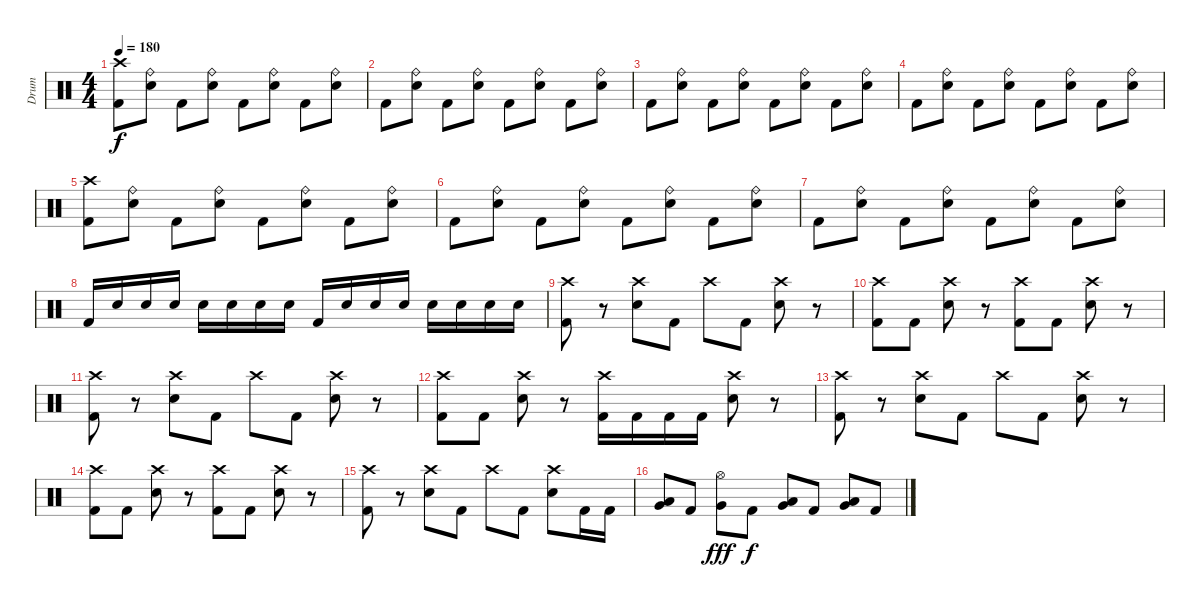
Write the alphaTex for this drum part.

\track ("Drum" "Drum") {instrument percussion}
\staff {score}
\articulation defaults
\ts (4 4)
\tempo 180
\clef neutral
\ks c
("Crash high (hit)" "Kick (hit) 2").8{dy f} ("Ride (bell)" "Snare (hit) 2").8 "Kick (hit) 2".8 ("Ride (bell)" "Snare (hit) 2").8 "Kick (hit) 2".8 ("Ride (bell)" "Snare (hit) 2").8 "Kick (hit) 2".8 ("Ride (bell)" "Snare (hit) 2").8 |
"Kick (hit) 2".8 ("Ride (bell)" "Snare (hit) 2").8 "Kick (hit) 2".8 ("Ride (bell)" "Snare (hit) 2").8 "Kick (hit) 2".8 ("Ride (bell)" "Snare (hit) 2").8 "Kick (hit) 2".8 ("Ride (bell)" "Snare (hit) 2").8 |
"Kick (hit) 2".8 ("Ride (bell)" "Snare (hit) 2").8 "Kick (hit) 2".8 ("Ride (bell)" "Snare (hit) 2").8 "Kick (hit) 2".8 ("Ride (bell)" "Snare (hit) 2").8 "Kick (hit) 2".8 ("Ride (bell)" "Snare (hit) 2").8 |
"Kick (hit) 2".8 ("Ride (bell)" "Snare (hit) 2").8 "Kick (hit) 2".8 ("Ride (bell)" "Snare (hit) 2").8 "Kick (hit) 2".8 ("Ride (bell)" "Snare (hit) 2").8 "Kick (hit) 2".8 ("Ride (bell)" "Snare (hit) 2").8 |
("Crash high (hit)" "Kick (hit) 2").8 ("Ride (bell)" "Snare (hit) 2").8 "Kick (hit) 2".8 ("Ride (bell)" "Snare (hit) 2").8 "Kick (hit) 2".8 ("Ride (bell)" "Snare (hit) 2").8 "Kick (hit) 2".8 ("Ride (bell)" "Snare (hit) 2").8 |
"Kick (hit) 2".8 ("Ride (bell)" "Snare (hit) 2").8 "Kick (hit) 2".8 ("Ride (bell)" "Snare (hit) 2").8 "Kick (hit) 2".8 ("Ride (bell)" "Snare (hit) 2").8 "Kick (hit) 2".8 ("Ride (bell)" "Snare (hit) 2").8 |
"Kick (hit) 2".8 ("Ride (bell)" "Snare (hit) 2").8 "Kick (hit) 2".8 ("Ride (bell)" "Snare (hit) 2").8 "Kick (hit) 2".8 ("Ride (bell)" "Snare (hit) 2").8 "Kick (hit) 2".8 ("Ride (bell)" "Snare (hit) 2").8 |
"Kick (hit) 2".16 "Snare (hit) 2".16 "Snare (hit) 2".16 "Snare (hit) 2".16 "Snare (hit) 2".16 "Snare (hit) 2".16 "Snare (hit) 2".16 "Snare (hit) 2".16 "Kick (hit) 2".16 "Snare (hit) 2".16 "Snare (hit) 2".16 "Snare (hit) 2".16 "Snare (hit) 2".16 "Snare (hit) 2".16 "Snare (hit) 2".16 "Snare (hit) 2".16 |
("Crash high (hit)" "Kick (hit) 2").8 r.8 ("Crash high (hit)" "Snare (hit) 2").8 "Kick (hit) 2".8 "Crash high (hit)".8 "Kick (hit) 2".8 ("Crash high (hit)" "Snare (hit) 2").8 r.8 |
("Crash high (hit)" "Kick (hit) 2").8 "Kick (hit) 2".8 ("Crash high (hit)" "Snare (hit) 2").8 r.8 ("Crash high (hit)" "Kick (hit) 2").8 "Kick (hit) 2".8 ("Crash high (hit)" "Snare (hit) 2").8 r.8 |
("Crash high (hit)" "Kick (hit) 2").8 r.8 ("Crash high (hit)" "Snare (hit) 2").8 "Kick (hit) 2".8 "Crash high (hit)".8 "Kick (hit) 2".8 ("Crash high (hit)" "Snare (hit) 2").8 r.8 |
("Crash high (hit)" "Kick (hit) 2").8 "Kick (hit) 2".8 ("Crash high (hit)" "Snare (hit) 2").8 r.8 ("Crash high (hit)" "Kick (hit) 2").16 "Kick (hit) 2".16 "Kick (hit) 2".16 "Kick (hit) 2".16 ("Crash high (hit)" "Snare (hit) 2").8 r.8 |
("Crash high (hit)" "Kick (hit) 2").8 r.8 ("Crash high (hit)" "Snare (hit) 2").8 "Kick (hit) 2".8 "Crash high (hit)".8 "Kick (hit) 2".8 ("Crash high (hit)" "Snare (hit) 2").8 r.8 |
("Crash high (hit)" "Kick (hit) 2").8 "Kick (hit) 2".8 ("Crash high (hit)" "Snare (hit) 2").8 r.8 ("Crash high (hit)" "Kick (hit) 2").8 "Kick (hit) 2".8 ("Crash high (hit)" "Snare (hit) 2").8 r.8 |
("Crash high (hit)" "Kick (hit) 2").8 r.8 ("Crash high (hit)" "Snare (hit) 2").8 "Kick (hit) 2".8 "Crash high (hit)".8 "Kick (hit) 2".8 ("Crash high (hit)" "Snare (hit) 2").8 "Kick (hit) 2".16 "Kick (hit) 2".16 |
("Low Tom (hit)" "Very Low Tom (hit)").8 "Kick (hit) 2".8 ("Hi-Hat (open)" "Very Low Tom (hit)").8{dy fff} "Kick (hit) 2".8{dy f} ("Low Tom (hit)" "Very Low Tom (hit)").8 "Kick (hit) 2".8 ("Low Tom (hit)" "Very Low Tom (hit)").8 "Kick (hit) 2".8
